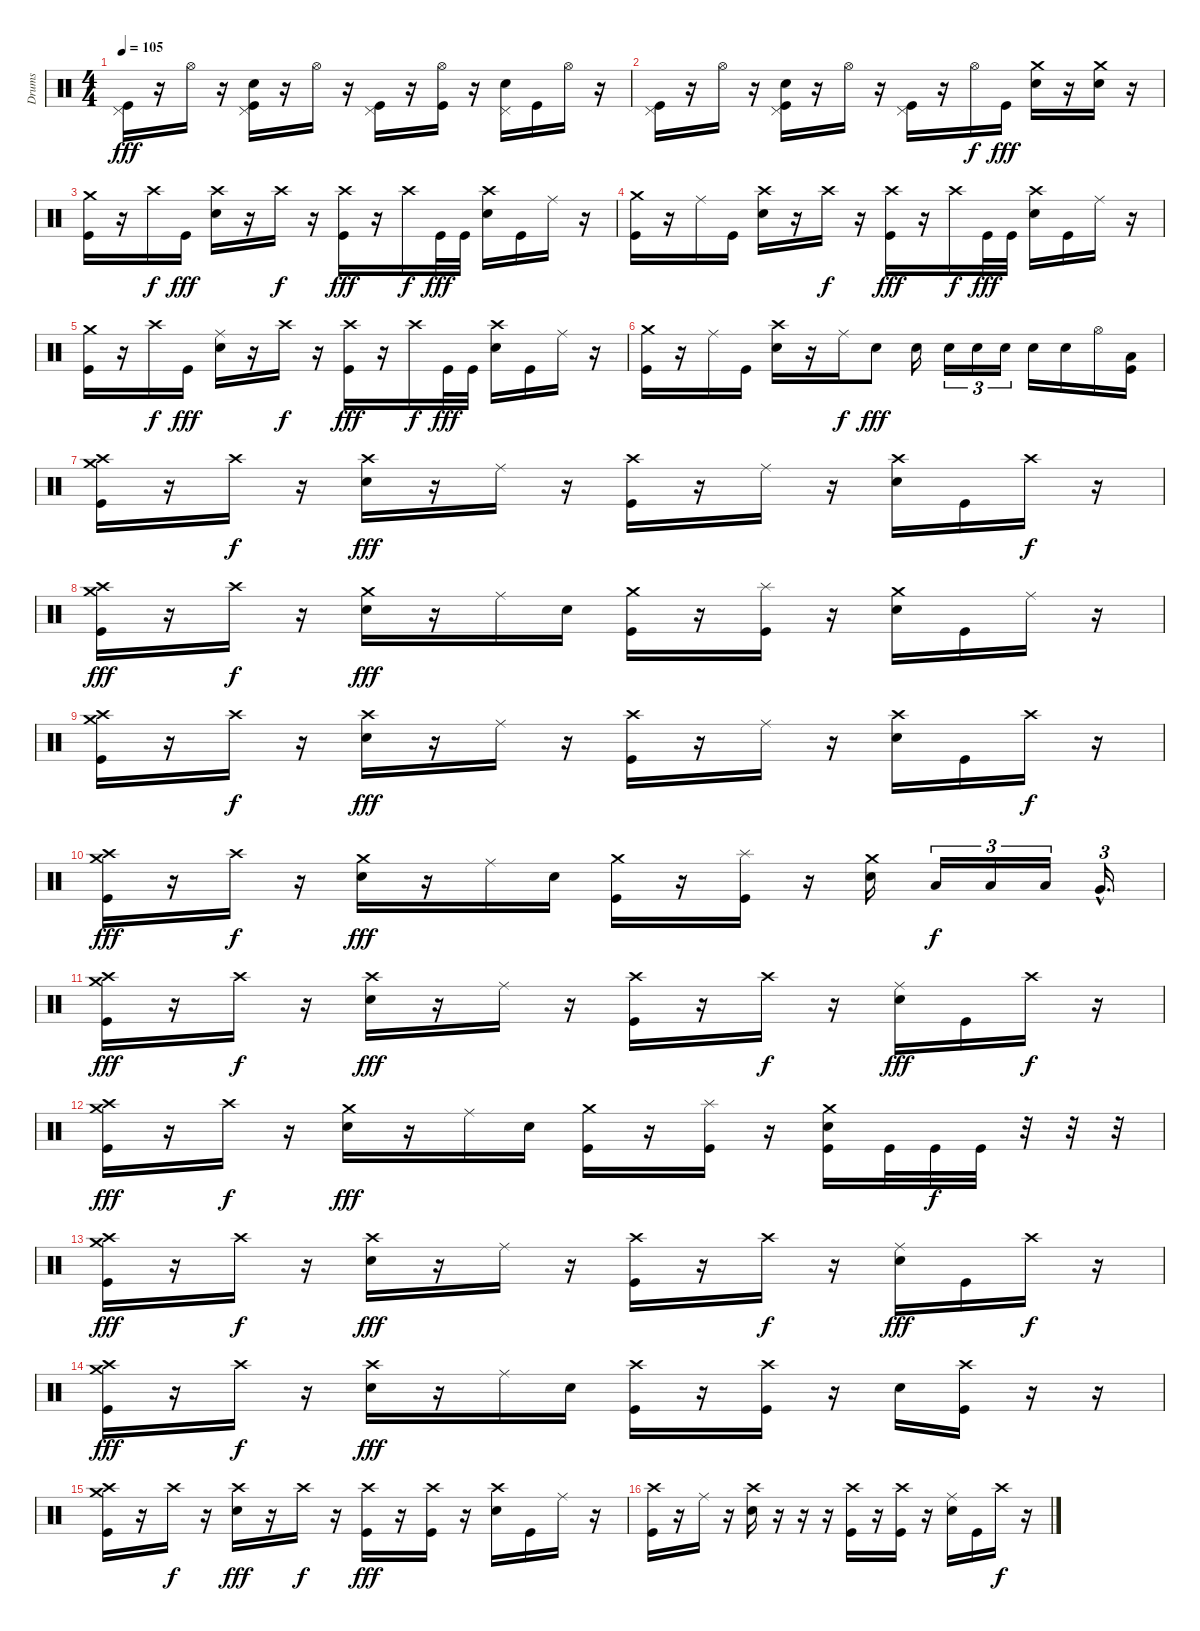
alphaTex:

\track ("Drums" "Drums") {instrument percussion}
\staff {score}
\articulation defaults
\ts (4 4)
\tempo 105
\clef neutral
\ks c
("Pedal Hi-Hat (hit)" "Kick (hit)").16{dy fff} r.16 "Hi-Hat (open)".16 r.16 ("Pedal Hi-Hat (hit)" "Electric Snare (hit)" "Kick (hit)").16 r.16 "Hi-Hat (open)".16 r.16 ("Pedal Hi-Hat (hit)" "Kick (hit)").16 r.16 ("Hi-Hat (open)" "Kick (hit)").16 r.16 ("Pedal Hi-Hat (hit)" "Electric Snare (hit)").16 "Kick (hit)".16 "Hi-Hat (open)".16 r.16 |
("Pedal Hi-Hat (hit)" "Kick (hit)").16 r.16 "Hi-Hat (open)".16 r.16 ("Pedal Hi-Hat (hit)" "Electric Snare (hit)" "Kick (hit)").16 r.16 "Hi-Hat (open)".16 r.16 ("Pedal Hi-Hat (hit)" "Kick (hit)").16 r.16 "Hi-Hat (open)".16{dy f} "Kick (hit)".16{dy fff} ("Crash medium (hit)" "Electric Snare (hit)").16 r.16 ("Crash medium (hit)" "Electric Snare (hit)").16 r.16 |
("Crash medium (hit)" "Kick (hit)").16 r.16 "Crash high (hit)".16{dy f} "Kick (hit)".16{dy fff} ("Crash high (hit)" "Electric Snare (hit)").16 r.16 "Crash high (hit)".16{dy f} r.16 ("Crash high (hit)" "Kick (hit)").16{dy fff} r.16 "Crash high (hit)".16{dy f} "Kick (hit)".32{dy fff} "Kick (hit)".32 ("Crash high (hit)" "Electric Snare (hit)").16 "Kick (hit)".16 "Ride (middle)".16 r.16 |
("Crash medium (hit)" "Kick (hit)").16 r.16 "Ride (middle)".16 "Kick (hit)".16 ("Crash high (hit)" "Electric Snare (hit)").16 r.16 "Crash high (hit)".16{dy f} r.16 ("Crash high (hit)" "Kick (hit)").16{dy fff} r.16 "Crash high (hit)".16{dy f} "Kick (hit)".32{dy fff} "Kick (hit)".32 ("Crash high (hit)" "Electric Snare (hit)").16 "Kick (hit)".16 "Ride (middle)".16 r.16 |
("Crash medium (hit)" "Kick (hit)").16 r.16 "Crash high (hit)".16{dy f} "Kick (hit)".16{dy fff} ("Ride (middle)" "Electric Snare (hit)").16 r.16 "Crash high (hit)".16{dy f} r.16 ("Crash high (hit)" "Kick (hit)").16{dy fff} r.16 "Crash high (hit)".16{dy f} "Kick (hit)".32{dy fff} "Kick (hit)".32 ("Crash high (hit)" "Electric Snare (hit)").16 "Kick (hit)".16 "Ride (middle)".16 r.16 |
("Crash medium (hit)" "Kick (hit)").16 r.16 "Ride (middle)".16 "Kick (hit)".16 ("Crash high (hit)" "Electric Snare (hit)").16 r.16 "Ride (middle)".16{dy f} "Electric Snare (hit)".8{dy fff} "Electric Snare (hit)".16 "Electric Snare (hit)".16{tu (3 2)} "Electric Snare (hit)".16{tu (3 2)} "Electric Snare (hit)".16{tu (3 2)} "Electric Snare (hit)".16 "Electric Snare (hit)".16 "Hi-Hat (open)".16 ("Low Floor Tom (hit)" "Kick (hit)").16 |
("Crash medium (hit)" "Kick (hit)" "Crash high (hit)").16 r.16 "Crash high (hit)".16{dy f} r.16 ("Crash high (hit)" "Electric Snare (hit)").16{dy fff} r.16 "Ride (middle)".16 r.16 ("Crash high (hit)" "Kick (hit)").16 r.16 "Ride (middle)".16 r.16 ("Crash high (hit)" "Electric Snare (hit)").16 "Kick (hit)".16 "Crash high (hit)".16{dy f} r.16 |
("Crash medium (hit)" "Kick (hit)" "Crash high (hit)").16{dy fff} r.16 "Crash high (hit)".16{dy f} r.16 ("Crash medium (hit)" "Electric Snare (hit)").16{dy fff} r.16 "Ride (middle)".16 "Electric Snare (hit)".16 ("Crash medium (hit)" "Kick (hit)").16 r.16 ("Splash (hit)" "Kick (hit)").16 r.16 ("Crash medium (hit)" "Electric Snare (hit)").16 "Kick (hit)".16 "Ride (middle)".16 r.16 |
("Crash medium (hit)" "Kick (hit)" "Crash high (hit)").16 r.16 "Crash high (hit)".16{dy f} r.16 ("Crash high (hit)" "Electric Snare (hit)").16{dy fff} r.16 "Ride (middle)".16 r.16 ("Crash high (hit)" "Kick (hit)").16 r.16 "Ride (middle)".16 r.16 ("Crash high (hit)" "Electric Snare (hit)").16 "Kick (hit)".16 "Crash high (hit)".16{dy f} r.16 |
("Crash medium (hit)" "Kick (hit)" "Crash high (hit)").16{dy fff} r.16 "Crash high (hit)".16{dy f} r.16 ("Crash medium (hit)" "Electric Snare (hit)").16{dy fff} r.16 "Ride (middle)".16 "Electric Snare (hit)".16 ("Crash medium (hit)" "Kick (hit)").16 r.16 ("Splash (hit)" "Kick (hit)").16 r.16 ("Crash medium (hit)" "Electric Snare (hit)").16 "Low Tom (hit)".16{tu (3 2) dy f} "Low Tom (hit)".16{tu (3 2)} "Low Tom (hit)".16{tu (3 2)} "Very Low Tom (hit)"{hac}.16{d tu (3 2)} |
("Crash medium (hit)" "Kick (hit)" "Crash high (hit)").16{dy fff} r.16 "Crash high (hit)".16{dy f} r.16 ("Crash high (hit)" "Electric Snare (hit)").16{dy fff} r.16 "Ride (middle)".16 r.16 ("Crash high (hit)" "Kick (hit)").16 r.16 "Crash high (hit)".16{dy f} r.16 ("Ride (middle)" "Electric Snare (hit)").16{dy fff} "Kick (hit)".16 "Crash high (hit)".16{dy f} r.16 |
("Crash medium (hit)" "Kick (hit)" "Crash high (hit)").16{dy fff} r.16 "Crash high (hit)".16{dy f} r.16 ("Crash medium (hit)" "Electric Snare (hit)").16{dy fff} r.16 "Ride (middle)".16 "Electric Snare (hit)".16 ("Crash medium (hit)" "Kick (hit)").16 r.16 ("Splash (hit)" "Kick (hit)").16 r.16 ("Crash medium (hit)" "Electric Snare (hit)" "Kick (hit)").16 "Kick (hit)".32 "Kick (hit)".32{dy f} "Kick (hit)".32 r.32 r.32 r.32 |
("Crash medium (hit)" "Kick (hit)" "Crash high (hit)").16{dy fff} r.16 "Crash high (hit)".16{dy f} r.16 ("Crash high (hit)" "Electric Snare (hit)").16{dy fff} r.16 "Ride (middle)".16 r.16 ("Crash high (hit)" "Kick (hit)").16 r.16 "Crash high (hit)".16{dy f} r.16 ("Ride (middle)" "Electric Snare (hit)").16{dy fff} "Kick (hit)".16 "Crash high (hit)".16{dy f} r.16 |
("Crash medium (hit)" "Kick (hit)" "Crash high (hit)").16{dy fff} r.16 "Crash high (hit)".16{dy f} r.16 ("Crash high (hit)" "Electric Snare (hit)").16{dy fff} r.16 "Ride (middle)".16 "Electric Snare (hit)".16 ("Crash high (hit)" "Kick (hit)").16 r.16 ("Crash high (hit)" "Kick (hit)").16 r.16 "Electric Snare (hit)".16 ("Crash high (hit)" "Kick (hit)").16 r.16 r.16 |
("Crash medium (hit)" "Crash high (hit)" "Kick (hit)").16 r.16 "Crash high (hit)".16{dy f} r.16 ("Crash high (hit)" "Electric Snare (hit)").16{dy fff} r.16 "Crash high (hit)".16{dy f} r.16 ("Crash high (hit)" "Kick (hit)").16{dy fff} r.16 ("Crash high (hit)" "Kick (hit)").16 r.16 ("Crash high (hit)" "Electric Snare (hit)").16 "Kick (hit)".16 "Ride (middle)".16 r.16 |
("Crash high (hit)" "Kick (hit)").16 r.16 "Ride (middle)".16 r.16 ("Crash high (hit)" "Electric Snare (hit)").16 r.16 r.16 r.16 ("Crash high (hit)" "Kick (hit)").16 r.16 ("Crash high (hit)" "Kick (hit)").16 r.16 ("Ride (middle)" "Electric Snare (hit)").16 "Kick (hit)".16 "Crash high (hit)".16{dy f} r.16
